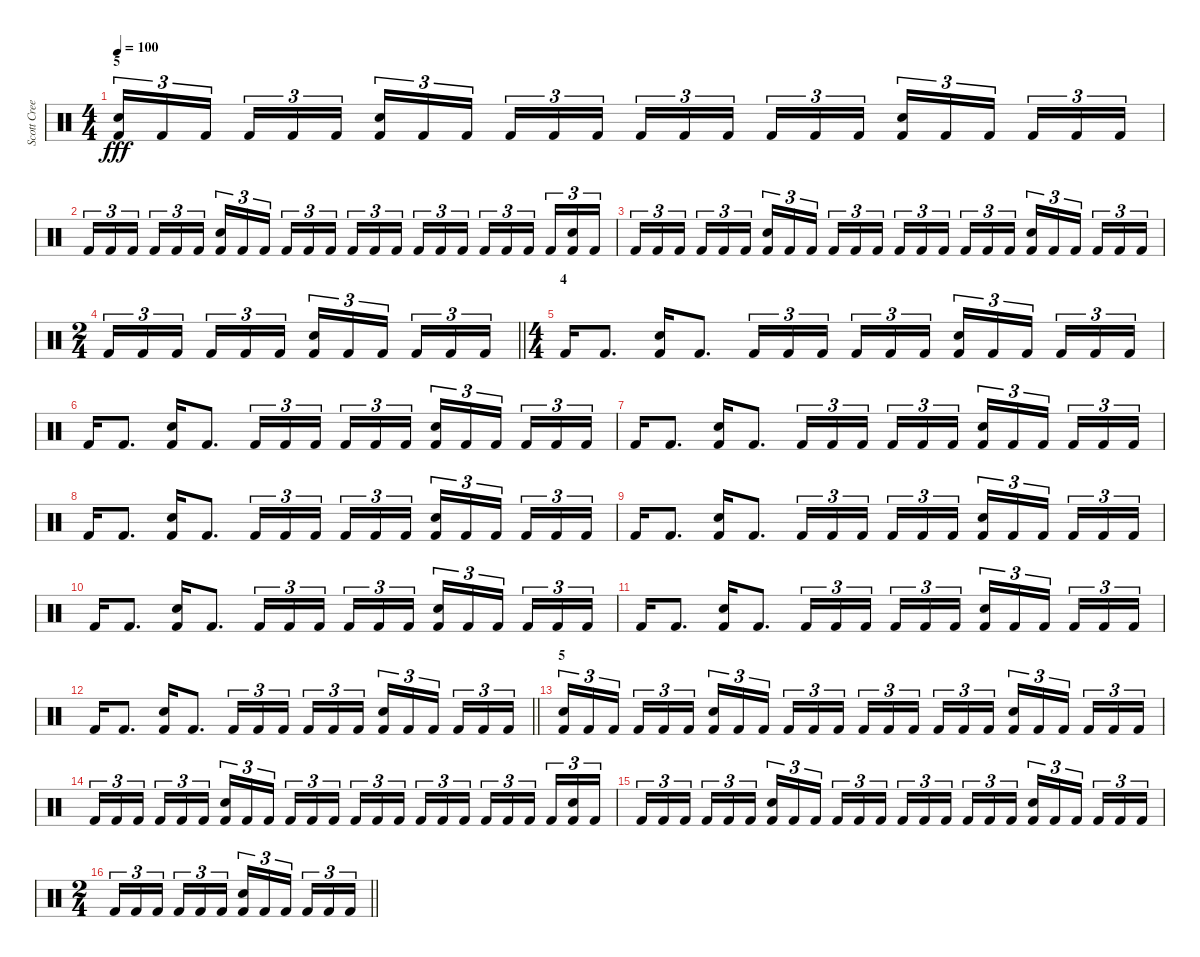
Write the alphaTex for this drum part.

\track ("Scott Creekmore" "Scott Cree") {instrument percussion}
\staff {score}
\articulation defaults
\ts (4 4)
\section ("" "5")
\tempo 100
\clef neutral
\ks c
("Electric Snare (hit)" "Kick (hit) 2").16{tu (3 2) dy fff} "Kick (hit) 2".16{tu (3 2)} "Kick (hit) 2".16{tu (3 2) beam splitsecondary} "Kick (hit) 2".16{tu (3 2)} "Kick (hit) 2".16{tu (3 2)} "Kick (hit) 2".16{tu (3 2)} ("Electric Snare (hit)" "Kick (hit) 2").16{tu (3 2)} "Kick (hit) 2".16{tu (3 2)} "Kick (hit) 2".16{tu (3 2) beam splitsecondary} "Kick (hit) 2".16{tu (3 2)} "Kick (hit) 2".16{tu (3 2)} "Kick (hit) 2".16{tu (3 2)} "Kick (hit) 2".16{tu (3 2)} "Kick (hit) 2".16{tu (3 2)} "Kick (hit) 2".16{tu (3 2) beam splitsecondary} "Kick (hit) 2".16{tu (3 2)} "Kick (hit) 2".16{tu (3 2)} "Kick (hit) 2".16{tu (3 2)} ("Electric Snare (hit)" "Kick (hit) 2").16{tu (3 2)} "Kick (hit) 2".16{tu (3 2)} "Kick (hit) 2".16{tu (3 2) beam splitsecondary} "Kick (hit) 2".16{tu (3 2)} "Kick (hit) 2".16{tu (3 2)} "Kick (hit) 2".16{tu (3 2)} |
"Kick (hit) 2".16{tu (3 2)} "Kick (hit) 2".16{tu (3 2)} "Kick (hit) 2".16{tu (3 2) beam splitsecondary} "Kick (hit) 2".16{tu (3 2)} "Kick (hit) 2".16{tu (3 2)} "Kick (hit) 2".16{tu (3 2)} ("Electric Snare (hit)" "Kick (hit) 2").16{tu (3 2)} "Kick (hit) 2".16{tu (3 2)} "Kick (hit) 2".16{tu (3 2) beam splitsecondary} "Kick (hit) 2".16{tu (3 2)} "Kick (hit) 2".16{tu (3 2)} "Kick (hit) 2".16{tu (3 2)} "Kick (hit) 2".16{tu (3 2)} "Kick (hit) 2".16{tu (3 2)} "Kick (hit) 2".16{tu (3 2) beam splitsecondary} "Kick (hit) 2".16{tu (3 2)} "Kick (hit) 2".16{tu (3 2)} "Kick (hit) 2".16{tu (3 2)} "Kick (hit) 2".16{tu (3 2)} "Kick (hit) 2".16{tu (3 2)} "Kick (hit) 2".16{tu (3 2) beam splitsecondary} "Kick (hit) 2".16{tu (3 2)} ("Electric Snare (hit)" "Kick (hit) 2").16{tu (3 2)} "Kick (hit) 2".16{tu (3 2)} |
"Kick (hit) 2".16{tu (3 2)} "Kick (hit) 2".16{tu (3 2)} "Kick (hit) 2".16{tu (3 2) beam splitsecondary} "Kick (hit) 2".16{tu (3 2)} "Kick (hit) 2".16{tu (3 2)} "Kick (hit) 2".16{tu (3 2)} ("Electric Snare (hit)" "Kick (hit) 2").16{tu (3 2)} "Kick (hit) 2".16{tu (3 2)} "Kick (hit) 2".16{tu (3 2) beam splitsecondary} "Kick (hit) 2".16{tu (3 2)} "Kick (hit) 2".16{tu (3 2)} "Kick (hit) 2".16{tu (3 2)} "Kick (hit) 2".16{tu (3 2)} "Kick (hit) 2".16{tu (3 2)} "Kick (hit) 2".16{tu (3 2) beam splitsecondary} "Kick (hit) 2".16{tu (3 2)} "Kick (hit) 2".16{tu (3 2)} "Kick (hit) 2".16{tu (3 2)} ("Electric Snare (hit)" "Kick (hit) 2").16{tu (3 2)} "Kick (hit) 2".16{tu (3 2)} "Kick (hit) 2".16{tu (3 2) beam splitsecondary} "Kick (hit) 2".16{tu (3 2)} "Kick (hit) 2".16{tu (3 2)} "Kick (hit) 2".16{tu (3 2)} |
\ts (2 4)
\barLineRight lightlight "Kick (hit) 2".16{tu (3 2)} "Kick (hit) 2".16{tu (3 2)} "Kick (hit) 2".16{tu (3 2) beam splitsecondary} "Kick (hit) 2".16{tu (3 2)} "Kick (hit) 2".16{tu (3 2)} "Kick (hit) 2".16{tu (3 2)}
("Electric Snare (hit)" "Kick (hit) 2").16{tu (3 2)} "Kick (hit) 2".16{tu (3 2)} "Kick (hit) 2".16{tu (3 2) beam splitsecondary} "Kick (hit) 2".16{tu (3 2)} "Kick (hit) 2".16{tu (3 2)} "Kick (hit) 2".16{tu (3 2)} |
\ts (4 4)
\section ("" "4")
"Kick (hit) 2".16 "Kick (hit) 2".8{d} ("Electric Snare (hit)" "Kick (hit) 2").16 "Kick (hit) 2".8{d} "Kick (hit) 2".16{tu (3 2)} "Kick (hit) 2".16{tu (3 2)} "Kick (hit) 2".16{tu (3 2) beam splitsecondary} "Kick (hit) 2".16{tu (3 2)} "Kick (hit) 2".16{tu (3 2)} "Kick (hit) 2".16{tu (3 2)} ("Electric Snare (hit)" "Kick (hit) 2").16{tu (3 2)} "Kick (hit) 2".16{tu (3 2)} "Kick (hit) 2".16{tu (3 2) beam splitsecondary} "Kick (hit) 2".16{tu (3 2)} "Kick (hit) 2".16{tu (3 2)} "Kick (hit) 2".16{tu (3 2)} |
"Kick (hit) 2".16 "Kick (hit) 2".8{d} ("Electric Snare (hit)" "Kick (hit) 2").16 "Kick (hit) 2".8{d} "Kick (hit) 2".16{tu (3 2)} "Kick (hit) 2".16{tu (3 2)} "Kick (hit) 2".16{tu (3 2) beam splitsecondary} "Kick (hit) 2".16{tu (3 2)} "Kick (hit) 2".16{tu (3 2)} "Kick (hit) 2".16{tu (3 2)} ("Electric Snare (hit)" "Kick (hit) 2").16{tu (3 2)} "Kick (hit) 2".16{tu (3 2)} "Kick (hit) 2".16{tu (3 2) beam splitsecondary} "Kick (hit) 2".16{tu (3 2)} "Kick (hit) 2".16{tu (3 2)} "Kick (hit) 2".16{tu (3 2)} |
"Kick (hit) 2".16 "Kick (hit) 2".8{d} ("Electric Snare (hit)" "Kick (hit) 2").16 "Kick (hit) 2".8{d} "Kick (hit) 2".16{tu (3 2)} "Kick (hit) 2".16{tu (3 2)} "Kick (hit) 2".16{tu (3 2) beam splitsecondary} "Kick (hit) 2".16{tu (3 2)} "Kick (hit) 2".16{tu (3 2)} "Kick (hit) 2".16{tu (3 2)} ("Electric Snare (hit)" "Kick (hit) 2").16{tu (3 2)} "Kick (hit) 2".16{tu (3 2)} "Kick (hit) 2".16{tu (3 2) beam splitsecondary} "Kick (hit) 2".16{tu (3 2)} "Kick (hit) 2".16{tu (3 2)} "Kick (hit) 2".16{tu (3 2)} |
"Kick (hit) 2".16 "Kick (hit) 2".8{d} ("Electric Snare (hit)" "Kick (hit) 2").16 "Kick (hit) 2".8{d} "Kick (hit) 2".16{tu (3 2)} "Kick (hit) 2".16{tu (3 2)} "Kick (hit) 2".16{tu (3 2) beam splitsecondary} "Kick (hit) 2".16{tu (3 2)} "Kick (hit) 2".16{tu (3 2)} "Kick (hit) 2".16{tu (3 2)} ("Electric Snare (hit)" "Kick (hit) 2").16{tu (3 2)} "Kick (hit) 2".16{tu (3 2)} "Kick (hit) 2".16{tu (3 2) beam splitsecondary} "Kick (hit) 2".16{tu (3 2)} "Kick (hit) 2".16{tu (3 2)} "Kick (hit) 2".16{tu (3 2)} |
"Kick (hit) 2".16 "Kick (hit) 2".8{d} ("Electric Snare (hit)" "Kick (hit) 2").16 "Kick (hit) 2".8{d} "Kick (hit) 2".16{tu (3 2)} "Kick (hit) 2".16{tu (3 2)} "Kick (hit) 2".16{tu (3 2) beam splitsecondary} "Kick (hit) 2".16{tu (3 2)} "Kick (hit) 2".16{tu (3 2)} "Kick (hit) 2".16{tu (3 2)} ("Electric Snare (hit)" "Kick (hit) 2").16{tu (3 2)} "Kick (hit) 2".16{tu (3 2)} "Kick (hit) 2".16{tu (3 2) beam splitsecondary} "Kick (hit) 2".16{tu (3 2)} "Kick (hit) 2".16{tu (3 2)} "Kick (hit) 2".16{tu (3 2)} |
"Kick (hit) 2".16 "Kick (hit) 2".8{d} ("Electric Snare (hit)" "Kick (hit) 2").16 "Kick (hit) 2".8{d} "Kick (hit) 2".16{tu (3 2)} "Kick (hit) 2".16{tu (3 2)} "Kick (hit) 2".16{tu (3 2) beam splitsecondary} "Kick (hit) 2".16{tu (3 2)} "Kick (hit) 2".16{tu (3 2)} "Kick (hit) 2".16{tu (3 2)} ("Electric Snare (hit)" "Kick (hit) 2").16{tu (3 2)} "Kick (hit) 2".16{tu (3 2)} "Kick (hit) 2".16{tu (3 2) beam splitsecondary} "Kick (hit) 2".16{tu (3 2)} "Kick (hit) 2".16{tu (3 2)} "Kick (hit) 2".16{tu (3 2)} |
"Kick (hit) 2".16 "Kick (hit) 2".8{d} ("Electric Snare (hit)" "Kick (hit) 2").16 "Kick (hit) 2".8{d} "Kick (hit) 2".16{tu (3 2)} "Kick (hit) 2".16{tu (3 2)} "Kick (hit) 2".16{tu (3 2) beam splitsecondary} "Kick (hit) 2".16{tu (3 2)} "Kick (hit) 2".16{tu (3 2)} "Kick (hit) 2".16{tu (3 2)} ("Electric Snare (hit)" "Kick (hit) 2").16{tu (3 2)} "Kick (hit) 2".16{tu (3 2)} "Kick (hit) 2".16{tu (3 2) beam splitsecondary} "Kick (hit) 2".16{tu (3 2)} "Kick (hit) 2".16{tu (3 2)} "Kick (hit) 2".16{tu (3 2)} |
\barLineRight lightlight "Kick (hit) 2".16 "Kick (hit) 2".8{d}
("Electric Snare (hit)" "Kick (hit) 2").16 "Kick (hit) 2".8{d} "Kick (hit) 2".16{tu (3 2)} "Kick (hit) 2".16{tu (3 2)} "Kick (hit) 2".16{tu (3 2) beam splitsecondary} "Kick (hit) 2".16{tu (3 2)} "Kick (hit) 2".16{tu (3 2)} "Kick (hit) 2".16{tu (3 2)} ("Electric Snare (hit)" "Kick (hit) 2").16{tu (3 2)} "Kick (hit) 2".16{tu (3 2)} "Kick (hit) 2".16{tu (3 2) beam splitsecondary} "Kick (hit) 2".16{tu (3 2)} "Kick (hit) 2".16{tu (3 2)} "Kick (hit) 2".16{tu (3 2)} |
\section ("" "5")
("Electric Snare (hit)" "Kick (hit) 2").16{tu (3 2)} "Kick (hit) 2".16{tu (3 2)} "Kick (hit) 2".16{tu (3 2) beam splitsecondary} "Kick (hit) 2".16{tu (3 2)} "Kick (hit) 2".16{tu (3 2)} "Kick (hit) 2".16{tu (3 2)} ("Electric Snare (hit)" "Kick (hit) 2").16{tu (3 2)} "Kick (hit) 2".16{tu (3 2)} "Kick (hit) 2".16{tu (3 2) beam splitsecondary} "Kick (hit) 2".16{tu (3 2)} "Kick (hit) 2".16{tu (3 2)} "Kick (hit) 2".16{tu (3 2)} "Kick (hit) 2".16{tu (3 2)} "Kick (hit) 2".16{tu (3 2)} "Kick (hit) 2".16{tu (3 2) beam splitsecondary} "Kick (hit) 2".16{tu (3 2)} "Kick (hit) 2".16{tu (3 2)} "Kick (hit) 2".16{tu (3 2)} ("Electric Snare (hit)" "Kick (hit) 2").16{tu (3 2)} "Kick (hit) 2".16{tu (3 2)} "Kick (hit) 2".16{tu (3 2) beam splitsecondary} "Kick (hit) 2".16{tu (3 2)} "Kick (hit) 2".16{tu (3 2)} "Kick (hit) 2".16{tu (3 2)} |
"Kick (hit) 2".16{tu (3 2)} "Kick (hit) 2".16{tu (3 2)} "Kick (hit) 2".16{tu (3 2) beam splitsecondary} "Kick (hit) 2".16{tu (3 2)} "Kick (hit) 2".16{tu (3 2)} "Kick (hit) 2".16{tu (3 2)} ("Electric Snare (hit)" "Kick (hit) 2").16{tu (3 2)} "Kick (hit) 2".16{tu (3 2)} "Kick (hit) 2".16{tu (3 2) beam splitsecondary} "Kick (hit) 2".16{tu (3 2)} "Kick (hit) 2".16{tu (3 2)} "Kick (hit) 2".16{tu (3 2)} "Kick (hit) 2".16{tu (3 2)} "Kick (hit) 2".16{tu (3 2)} "Kick (hit) 2".16{tu (3 2) beam splitsecondary} "Kick (hit) 2".16{tu (3 2)} "Kick (hit) 2".16{tu (3 2)} "Kick (hit) 2".16{tu (3 2)} "Kick (hit) 2".16{tu (3 2)} "Kick (hit) 2".16{tu (3 2)} "Kick (hit) 2".16{tu (3 2) beam splitsecondary} "Kick (hit) 2".16{tu (3 2)} ("Electric Snare (hit)" "Kick (hit) 2").16{tu (3 2)} "Kick (hit) 2".16{tu (3 2)} |
"Kick (hit) 2".16{tu (3 2)} "Kick (hit) 2".16{tu (3 2)} "Kick (hit) 2".16{tu (3 2) beam splitsecondary} "Kick (hit) 2".16{tu (3 2)} "Kick (hit) 2".16{tu (3 2)} "Kick (hit) 2".16{tu (3 2)} ("Electric Snare (hit)" "Kick (hit) 2").16{tu (3 2)} "Kick (hit) 2".16{tu (3 2)} "Kick (hit) 2".16{tu (3 2) beam splitsecondary} "Kick (hit) 2".16{tu (3 2)} "Kick (hit) 2".16{tu (3 2)} "Kick (hit) 2".16{tu (3 2)} "Kick (hit) 2".16{tu (3 2)} "Kick (hit) 2".16{tu (3 2)} "Kick (hit) 2".16{tu (3 2) beam splitsecondary} "Kick (hit) 2".16{tu (3 2)} "Kick (hit) 2".16{tu (3 2)} "Kick (hit) 2".16{tu (3 2)} ("Electric Snare (hit)" "Kick (hit) 2").16{tu (3 2)} "Kick (hit) 2".16{tu (3 2)} "Kick (hit) 2".16{tu (3 2) beam splitsecondary} "Kick (hit) 2".16{tu (3 2)} "Kick (hit) 2".16{tu (3 2)} "Kick (hit) 2".16{tu (3 2)} |
\ts (2 4)
\barLineRight lightlight "Kick (hit) 2".16{tu (3 2)} "Kick (hit) 2".16{tu (3 2)} "Kick (hit) 2".16{tu (3 2) beam splitsecondary} "Kick (hit) 2".16{tu (3 2)} "Kick (hit) 2".16{tu (3 2)} "Kick (hit) 2".16{tu (3 2)}
("Electric Snare (hit)" "Kick (hit) 2").16{tu (3 2)} "Kick (hit) 2".16{tu (3 2)} "Kick (hit) 2".16{tu (3 2) beam splitsecondary} "Kick (hit) 2".16{tu (3 2)} "Kick (hit) 2".16{tu (3 2)} "Kick (hit) 2".16{tu (3 2)}
